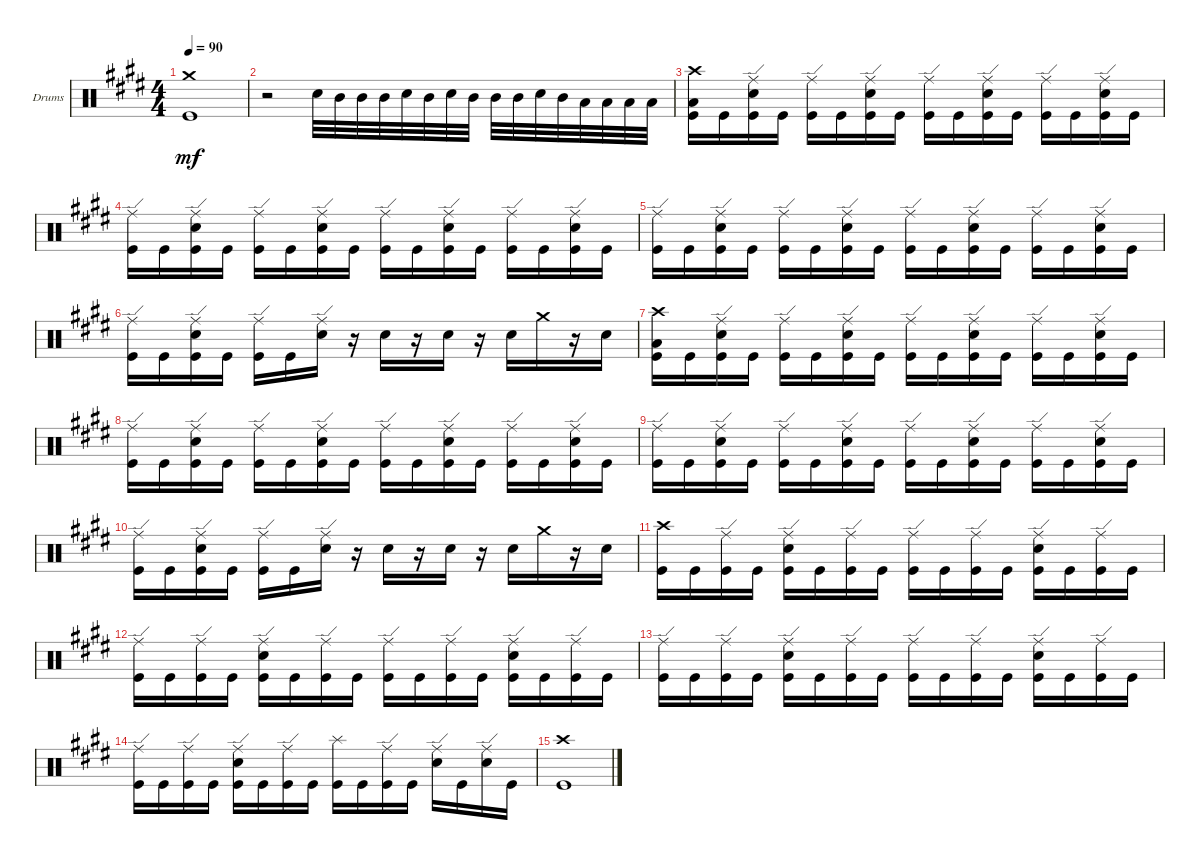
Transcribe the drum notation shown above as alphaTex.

\defaultSystemsLayout 4
\bracketExtendMode groupsimilarinstruments
\firstSystemTrackNameOrientation horizontal
\otherSystemsTrackNameOrientation horizontal
\track ("Drumkit" "Drums") {instrument percussion}
\staff {score}
\articulation defaults
\ts (4 4)
\tempo 90
\clef neutral
\ks e
("Kick (hit)" "Crash medium (hit)").1{dy mf} |
r.2 "Snare (hit) 2".32 "Mid Tom (hit)".32 "Mid Tom (hit)".32 "Mid Tom (hit)".32 "Snare (hit) 2".32 "Mid Tom (hit)".32 "Snare (hit) 2".32 "Mid Tom (hit)".32 "Mid Tom (hit)".32 "Mid Tom (hit)".32 "Snare (hit) 2".32 "Mid Tom (hit)".32 "Low Tom (hit)".32 "Low Tom (hit)".32 "Low Tom (hit)".32 "Low Tom (hit)".32 |
("Kick (hit)" "Crash high (hit)" "Low Tom (hit)").16 "Kick (hit)".16 ("Snare (hit) 2" "Ride (edge)" "Kick (hit)").16 "Kick (hit)".16 ("Kick (hit)" "Ride (edge)").16 "Kick (hit)".16 ("Snare (hit) 2" "Ride (edge)" "Kick (hit)").16 "Kick (hit)".16 ("Kick (hit)" "Ride (edge)").16 "Kick (hit)".16 ("Snare (hit) 2" "Ride (edge)" "Kick (hit)").16 "Kick (hit)".16 ("Kick (hit)" "Ride (edge)").16 "Kick (hit)".16 ("Snare (hit) 2" "Ride (edge)" "Kick (hit)").16 "Kick (hit)".16 |
("Kick (hit)" "Ride (edge)").16 "Kick (hit)".16 ("Snare (hit) 2" "Ride (edge)" "Kick (hit)").16 "Kick (hit)".16 ("Kick (hit)" "Ride (edge)").16 "Kick (hit)".16 ("Snare (hit) 2" "Ride (edge)" "Kick (hit)").16 "Kick (hit)".16 ("Kick (hit)" "Ride (edge)").16 "Kick (hit)".16 ("Snare (hit) 2" "Ride (edge)" "Kick (hit)").16 "Kick (hit)".16 ("Kick (hit)" "Ride (edge)").16 "Kick (hit)".16 ("Snare (hit) 2" "Ride (edge)" "Kick (hit)").16 "Kick (hit)".16 |
("Kick (hit)" "Ride (edge)").16 "Kick (hit)".16 ("Snare (hit) 2" "Ride (edge)" "Kick (hit)").16 "Kick (hit)".16 ("Kick (hit)" "Ride (edge)").16 "Kick (hit)".16 ("Snare (hit) 2" "Ride (edge)" "Kick (hit)").16 "Kick (hit)".16 ("Kick (hit)" "Ride (edge)").16 "Kick (hit)".16 ("Snare (hit) 2" "Ride (edge)" "Kick (hit)").16 "Kick (hit)".16 ("Kick (hit)" "Ride (edge)").16 "Kick (hit)".16 ("Snare (hit) 2" "Ride (edge)" "Kick (hit)").16 "Kick (hit)".16 |
("Kick (hit)" "Ride (edge)").16 "Kick (hit)".16 ("Snare (hit) 2" "Ride (edge)" "Kick (hit)").16 "Kick (hit)".16 ("Kick (hit)" "Ride (edge)").16 "Kick (hit)".16 ("Snare (hit) 2" "Ride (edge)").16 r.16 "Snare (hit) 2".16 r.16 "Snare (hit) 2".16 r.16 "Snare (hit) 2".16 "Crash medium (hit)".16 r.16 "Snare (hit) 2".16 |
("Kick (hit)" "Crash high (hit)" "Low Tom (hit)").16 "Kick (hit)".16 ("Snare (hit) 2" "Ride (edge)" "Kick (hit)").16 "Kick (hit)".16 ("Kick (hit)" "Ride (edge)").16 "Kick (hit)".16 ("Snare (hit) 2" "Ride (edge)" "Kick (hit)").16 "Kick (hit)".16 ("Kick (hit)" "Ride (edge)").16 "Kick (hit)".16 ("Snare (hit) 2" "Ride (edge)" "Kick (hit)").16 "Kick (hit)".16 ("Kick (hit)" "Ride (edge)").16 "Kick (hit)".16 ("Snare (hit) 2" "Ride (edge)" "Kick (hit)").16 "Kick (hit)".16 |
("Kick (hit)" "Ride (edge)").16 "Kick (hit)".16 ("Snare (hit) 2" "Ride (edge)" "Kick (hit)").16 "Kick (hit)".16 ("Kick (hit)" "Ride (edge)").16 "Kick (hit)".16 ("Snare (hit) 2" "Ride (edge)" "Kick (hit)").16 "Kick (hit)".16 ("Kick (hit)" "Ride (edge)").16 "Kick (hit)".16 ("Snare (hit) 2" "Ride (edge)" "Kick (hit)").16 "Kick (hit)".16 ("Kick (hit)" "Ride (edge)").16 "Kick (hit)".16 ("Snare (hit) 2" "Ride (edge)" "Kick (hit)").16 "Kick (hit)".16 |
("Kick (hit)" "Ride (edge)").16 "Kick (hit)".16 ("Snare (hit) 2" "Ride (edge)" "Kick (hit)").16 "Kick (hit)".16 ("Kick (hit)" "Ride (edge)").16 "Kick (hit)".16 ("Snare (hit) 2" "Ride (edge)" "Kick (hit)").16 "Kick (hit)".16 ("Kick (hit)" "Ride (edge)").16 "Kick (hit)".16 ("Snare (hit) 2" "Ride (edge)" "Kick (hit)").16 "Kick (hit)".16 ("Kick (hit)" "Ride (edge)").16 "Kick (hit)".16 ("Snare (hit) 2" "Ride (edge)" "Kick (hit)").16 "Kick (hit)".16 |
("Kick (hit)" "Ride (edge)").16 "Kick (hit)".16 ("Snare (hit) 2" "Ride (edge)" "Kick (hit)").16 "Kick (hit)".16 ("Kick (hit)" "Ride (edge)").16 "Kick (hit)".16 ("Snare (hit) 2" "Ride (edge)").16 r.16 "Snare (hit) 2".16 r.16 "Snare (hit) 2".16 r.16 "Snare (hit) 2".16 "Crash medium (hit)".16 r.16 "Snare (hit) 2".16 |
("Kick (hit)" "Crash high (hit)").16 "Kick (hit)".16 ("Ride (edge)" "Kick (hit)").16 "Kick (hit)".16 ("Kick (hit)" "Ride (edge)" "Snare (hit) 2").16 "Kick (hit)".16 ("Ride (edge)" "Kick (hit)").16 "Kick (hit)".16 ("Kick (hit)" "Ride (edge)").16 "Kick (hit)".16 ("Ride (edge)" "Kick (hit)").16 "Kick (hit)".16 ("Kick (hit)" "Ride (edge)" "Snare (hit) 2").16 "Kick (hit)".16 ("Ride (edge)" "Kick (hit)").16 "Kick (hit)".16 |
("Kick (hit)" "Ride (edge)").16 "Kick (hit)".16 ("Ride (edge)" "Kick (hit)").16 "Kick (hit)".16 ("Kick (hit)" "Ride (edge)" "Snare (hit) 2").16 "Kick (hit)".16 ("Ride (edge)" "Kick (hit)").16 "Kick (hit)".16 ("Kick (hit)" "Ride (edge)").16 "Kick (hit)".16 ("Ride (edge)" "Kick (hit)").16 "Kick (hit)".16 ("Kick (hit)" "Ride (edge)" "Snare (hit) 2").16 "Kick (hit)".16 ("Ride (edge)" "Kick (hit)").16 "Kick (hit)".16 |
("Kick (hit)" "Ride (edge)").16 "Kick (hit)".16 ("Ride (edge)" "Kick (hit)").16 "Kick (hit)".16 ("Kick (hit)" "Ride (edge)" "Snare (hit) 2").16 "Kick (hit)".16 ("Ride (edge)" "Kick (hit)").16 "Kick (hit)".16 ("Kick (hit)" "Ride (edge)").16 "Kick (hit)".16 ("Ride (edge)" "Kick (hit)").16 "Kick (hit)".16 ("Kick (hit)" "Ride (edge)" "Snare (hit) 2").16 "Kick (hit)".16 ("Ride (edge)" "Kick (hit)").16 "Kick (hit)".16 |
("Kick (hit)" "Ride (edge)").16 "Kick (hit)".16 ("Ride (edge)" "Kick (hit)").16 "Kick (hit)".16 ("Kick (hit)" "Ride (edge)" "Snare (hit) 2").16 "Kick (hit)".16 ("Ride (edge)" "Kick (hit)").16 "Kick (hit)".16 ("Kick (hit)" "Splash (hit)").16 "Kick (hit)".16 ("Ride (edge)" "Kick (hit)").16 "Kick (hit)".16 ("Ride (edge)" "Snare (hit) 2").16 "Kick (hit)".16 ("Ride (edge)" "Snare (hit) 2").16 "Kick (hit)".16 |
("Crash high (hit)" "Kick (hit)").1
